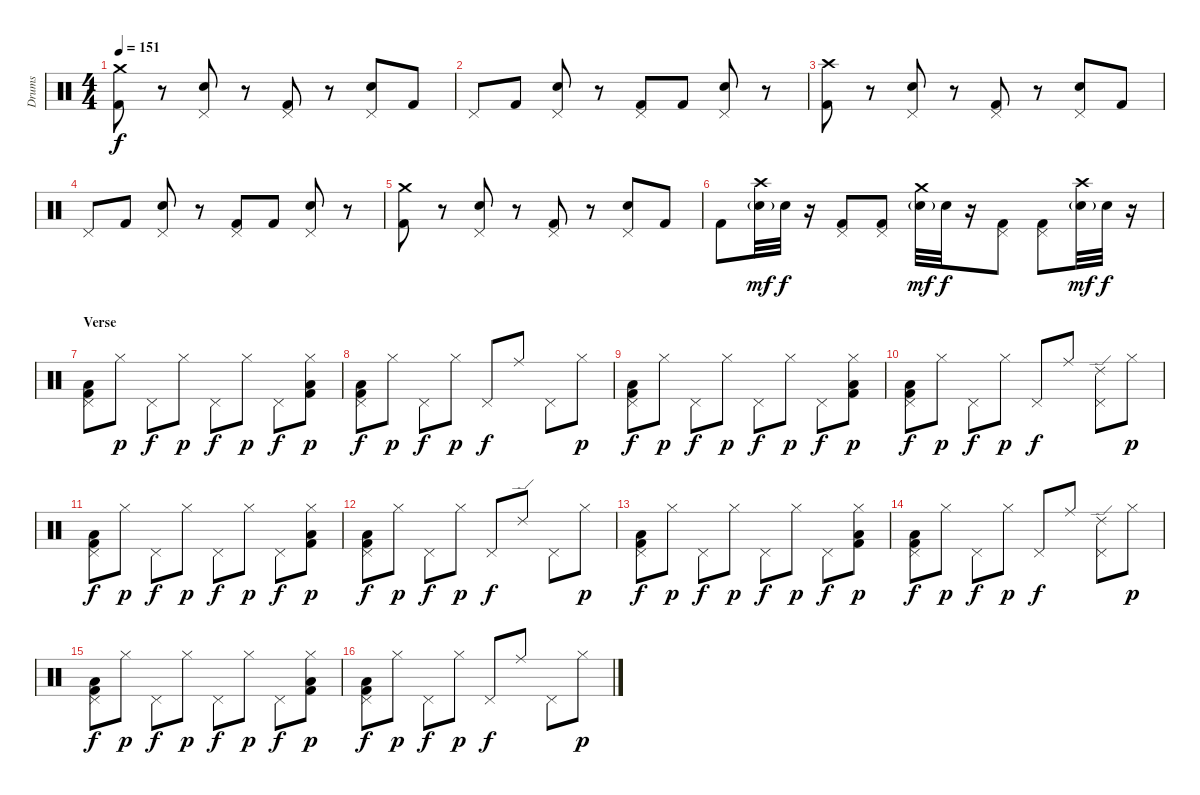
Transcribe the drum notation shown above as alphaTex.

\track ("Drums" "Drums") {instrument percussion}
\staff {score}
\articulation defaults
\ts (4 4)
\tempo 151
\clef neutral
\ks c
("Kick (hit) 2" "Crash medium (hit)").8{dy f} r.8 ("Pedal Hi-Hat (hit)" "Electric Snare (hit)").8 r.8 ("Pedal Hi-Hat (hit)" "Kick (hit) 2").8 r.8 ("Pedal Hi-Hat (hit)" "Electric Snare (hit)").8 "Kick (hit) 2".8 |
"Pedal Hi-Hat (hit)".8 "Kick (hit) 2".8 ("Pedal Hi-Hat (hit)" "Electric Snare (hit)").8 r.8 ("Pedal Hi-Hat (hit)" "Kick (hit) 2").8 "Kick (hit) 2".8 ("Pedal Hi-Hat (hit)" "Electric Snare (hit)").8 r.8 |
("Kick (hit) 2" "Crash high (hit)").8 r.8 ("Pedal Hi-Hat (hit)" "Electric Snare (hit)").8 r.8 ("Pedal Hi-Hat (hit)" "Kick (hit) 2").8 r.8 ("Pedal Hi-Hat (hit)" "Electric Snare (hit)").8 "Kick (hit) 2".8 |
"Pedal Hi-Hat (hit)".8 "Kick (hit) 2".8 ("Pedal Hi-Hat (hit)" "Electric Snare (hit)").8 r.8 ("Pedal Hi-Hat (hit)" "Kick (hit) 2").8 "Kick (hit) 2".8 ("Pedal Hi-Hat (hit)" "Electric Snare (hit)").8 r.8 |
("Kick (hit) 2" "Crash medium (hit)").8 r.8 ("Pedal Hi-Hat (hit)" "Electric Snare (hit)").8 r.8 ("Pedal Hi-Hat (hit)" "Kick (hit) 2").8 r.8 ("Pedal Hi-Hat (hit)" "Electric Snare (hit)").8 "Kick (hit) 2".8 |
"Kick (hit) 2".8{volume 16} ("Snare (hit) 2"{g} "Crash high (hit)").32{dy mf} "Snare (hit) 2".32{dy f} r.16 ("Kick (hit) 2" "Pedal Hi-Hat (hit)").8 ("Kick (hit) 2" "Pedal Hi-Hat (hit)").8 ("Snare (hit) 2"{g} "Crash medium (hit)").32{dy mf} "Snare (hit) 2".32{dy f} r.16 ("Kick (hit) 2" "Pedal Hi-Hat (hit)").8 ("Kick (hit) 2" "Pedal Hi-Hat (hit)").8 ("Snare (hit) 2"{g} "Crash high (hit)").32{dy mf} "Snare (hit) 2".32{dy f} r.16 |
\section ("" "Verse")
("Kick (hit) 2" "Low Floor Tom (hit)" "Pedal Hi-Hat (hit)").8{volume 16} "Hi-Hat (closed)".8{dy p} "Pedal Hi-Hat (hit)".8{dy f} "Hi-Hat (closed)".8{dy p} "Pedal Hi-Hat (hit)".8{dy f} "Hi-Hat (closed)".8{dy p} "Pedal Hi-Hat (hit)".8{dy f} ("Kick (hit) 2" "Low Floor Tom (hit)" "Hi-Hat (closed)").8{dy p volume 16} |
("Kick (hit) 2" "Low Floor Tom (hit)" "Pedal Hi-Hat (hit)").8{dy f volume 16} "Hi-Hat (closed)".8{dy p} "Pedal Hi-Hat (hit)".8{dy f} "Hi-Hat (closed)".8{dy p} "Pedal Hi-Hat (hit)".8{dy f} "Ride (middle)".8 "Pedal Hi-Hat (hit)".8 "Hi-Hat (closed)".8{dy p} |
("Kick (hit) 2" "Low Floor Tom (hit)" "Pedal Hi-Hat (hit)").8{dy f volume 16} "Hi-Hat (closed)".8{dy p} "Pedal Hi-Hat (hit)".8{dy f} "Hi-Hat (closed)".8{dy p} "Pedal Hi-Hat (hit)".8{dy f} "Hi-Hat (closed)".8{dy p} "Pedal Hi-Hat (hit)".8{dy f} ("Kick (hit) 2" "Low Floor Tom (hit)" "Hi-Hat (closed)").8{dy p volume 16} |
("Kick (hit) 2" "Low Floor Tom (hit)" "Pedal Hi-Hat (hit)").8{dy f volume 16} "Hi-Hat (closed)".8{dy p} "Pedal Hi-Hat (hit)".8{dy f} "Hi-Hat (closed)".8{dy p} "Pedal Hi-Hat (hit)".8{dy f} "Ride (middle)".8 ("Ride (edge) 2" "Pedal Hi-Hat (hit)").8 "Hi-Hat (closed)".8{dy p} |
("Kick (hit) 2" "Low Floor Tom (hit)" "Pedal Hi-Hat (hit)").8{dy f volume 16} "Hi-Hat (closed)".8{dy p} "Pedal Hi-Hat (hit)".8{dy f} "Hi-Hat (closed)".8{dy p} "Pedal Hi-Hat (hit)".8{dy f} "Hi-Hat (closed)".8{dy p} "Pedal Hi-Hat (hit)".8{dy f} ("Kick (hit) 2" "Low Floor Tom (hit)" "Hi-Hat (closed)").8{dy p volume 16} |
("Kick (hit) 2" "Low Floor Tom (hit)" "Pedal Hi-Hat (hit)").8{dy f volume 16} "Hi-Hat (closed)".8{dy p} "Pedal Hi-Hat (hit)".8{dy f} "Hi-Hat (closed)".8{dy p} "Pedal Hi-Hat (hit)".8{dy f} "Ride (edge) 2".8 "Pedal Hi-Hat (hit)".8 "Hi-Hat (closed)".8{dy p} |
("Kick (hit) 2" "Low Floor Tom (hit)" "Pedal Hi-Hat (hit)").8{dy f volume 16} "Hi-Hat (closed)".8{dy p} "Pedal Hi-Hat (hit)".8{dy f} "Hi-Hat (closed)".8{dy p} "Pedal Hi-Hat (hit)".8{dy f} "Hi-Hat (closed)".8{dy p} "Pedal Hi-Hat (hit)".8{dy f} ("Kick (hit) 2" "Low Floor Tom (hit)" "Hi-Hat (closed)").8{dy p volume 16} |
("Kick (hit) 2" "Low Floor Tom (hit)" "Pedal Hi-Hat (hit)").8{dy f volume 16} "Hi-Hat (closed)".8{dy p} "Pedal Hi-Hat (hit)".8{dy f} "Hi-Hat (closed)".8{dy p} "Pedal Hi-Hat (hit)".8{dy f} "Ride (middle)".8 ("Ride (edge) 2" "Pedal Hi-Hat (hit)").8 "Hi-Hat (closed)".8{dy p} |
("Kick (hit) 2" "Low Floor Tom (hit)" "Pedal Hi-Hat (hit)").8{dy f volume 16} "Hi-Hat (closed)".8{dy p} "Pedal Hi-Hat (hit)".8{dy f} "Hi-Hat (closed)".8{dy p} "Pedal Hi-Hat (hit)".8{dy f} "Hi-Hat (closed)".8{dy p} "Pedal Hi-Hat (hit)".8{dy f} ("Kick (hit) 2" "Low Floor Tom (hit)" "Hi-Hat (closed)").8{dy p volume 16} |
("Kick (hit) 2" "Low Floor Tom (hit)" "Pedal Hi-Hat (hit)").8{dy f volume 16} "Hi-Hat (closed)".8{dy p} "Pedal Hi-Hat (hit)".8{dy f} "Hi-Hat (closed)".8{dy p} "Pedal Hi-Hat (hit)".8{dy f} "Ride (middle)".8 "Pedal Hi-Hat (hit)".8 "Hi-Hat (closed)".8{dy p}
